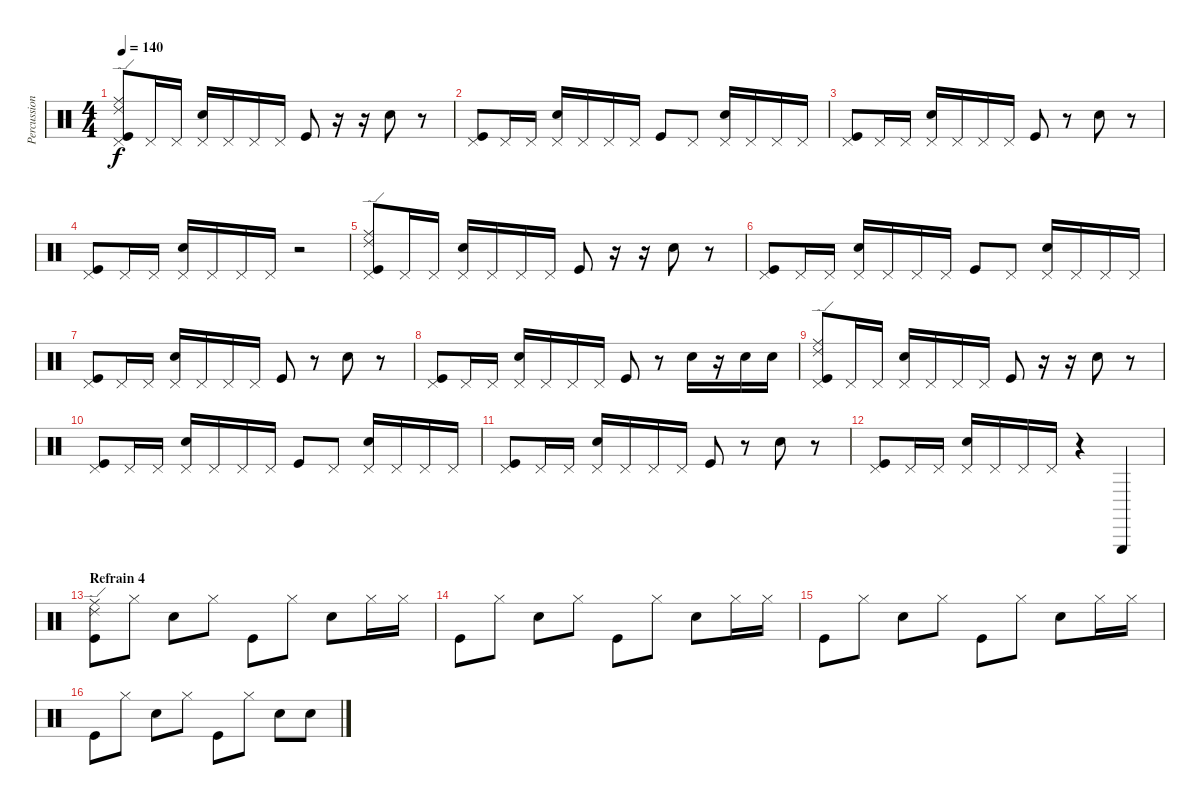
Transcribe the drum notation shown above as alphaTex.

\track ("Percussion" "Percussion") {instrument percussion}
\staff {score}
\articulation defaults
\ts (4 4)
\tempo 140
\clef neutral
\ks c
("Ride (middle)" "Ride (edge) 2" "Pedal Hi-Hat (hit)" "Kick (hit)").8{dy f} "Pedal Hi-Hat (hit)".16 "Pedal Hi-Hat (hit)".16 ("Pedal Hi-Hat (hit)" "Snare (hit) 2").16 "Pedal Hi-Hat (hit)".16 "Pedal Hi-Hat (hit)".16 "Pedal Hi-Hat (hit)".16 "Kick (hit)".8 r.16 r.16 "Snare (hit) 2".8 r.8 |
("Pedal Hi-Hat (hit)" "Kick (hit)").8 "Pedal Hi-Hat (hit)".16 "Pedal Hi-Hat (hit)".16 ("Pedal Hi-Hat (hit)" "Snare (hit) 2").16 "Pedal Hi-Hat (hit)".16 "Pedal Hi-Hat (hit)".16 "Pedal Hi-Hat (hit)".16 "Kick (hit)".8 "Pedal Hi-Hat (hit)".8 ("Pedal Hi-Hat (hit)" "Snare (hit) 2").16 "Pedal Hi-Hat (hit)".16 "Pedal Hi-Hat (hit)".16 "Pedal Hi-Hat (hit)".16 |
("Pedal Hi-Hat (hit)" "Kick (hit)").8 "Pedal Hi-Hat (hit)".16 "Pedal Hi-Hat (hit)".16 ("Pedal Hi-Hat (hit)" "Snare (hit) 2").16 "Pedal Hi-Hat (hit)".16 "Pedal Hi-Hat (hit)".16 "Pedal Hi-Hat (hit)".16 "Kick (hit)".8 r.8 "Snare (hit) 2".8 r.8 |
("Pedal Hi-Hat (hit)" "Kick (hit)").8 "Pedal Hi-Hat (hit)".16 "Pedal Hi-Hat (hit)".16 ("Pedal Hi-Hat (hit)" "Snare (hit) 2").16 "Pedal Hi-Hat (hit)".16 "Pedal Hi-Hat (hit)".16 "Pedal Hi-Hat (hit)".16 r.2 |
("Ride (middle)" "Ride (edge) 2" "Pedal Hi-Hat (hit)" "Kick (hit)").8 "Pedal Hi-Hat (hit)".16 "Pedal Hi-Hat (hit)".16 ("Pedal Hi-Hat (hit)" "Snare (hit) 2").16 "Pedal Hi-Hat (hit)".16 "Pedal Hi-Hat (hit)".16 "Pedal Hi-Hat (hit)".16 "Kick (hit)".8 r.16 r.16 "Snare (hit) 2".8 r.8 |
("Pedal Hi-Hat (hit)" "Kick (hit)").8 "Pedal Hi-Hat (hit)".16 "Pedal Hi-Hat (hit)".16 ("Pedal Hi-Hat (hit)" "Snare (hit) 2").16 "Pedal Hi-Hat (hit)".16 "Pedal Hi-Hat (hit)".16 "Pedal Hi-Hat (hit)".16 "Kick (hit)".8 "Pedal Hi-Hat (hit)".8 ("Pedal Hi-Hat (hit)" "Snare (hit) 2").16 "Pedal Hi-Hat (hit)".16 "Pedal Hi-Hat (hit)".16 "Pedal Hi-Hat (hit)".16 |
("Pedal Hi-Hat (hit)" "Kick (hit)").8 "Pedal Hi-Hat (hit)".16 "Pedal Hi-Hat (hit)".16 ("Pedal Hi-Hat (hit)" "Snare (hit) 2").16 "Pedal Hi-Hat (hit)".16 "Pedal Hi-Hat (hit)".16 "Pedal Hi-Hat (hit)".16 "Kick (hit)".8 r.8 "Snare (hit) 2".8 r.8 |
("Pedal Hi-Hat (hit)" "Kick (hit)").8 "Pedal Hi-Hat (hit)".16 "Pedal Hi-Hat (hit)".16 ("Pedal Hi-Hat (hit)" "Snare (hit) 2").16 "Pedal Hi-Hat (hit)".16 "Pedal Hi-Hat (hit)".16 "Pedal Hi-Hat (hit)".16 "Kick (hit)".8 r.8 "Snare (hit) 2".16 r.16 "Snare (hit) 2".16 "Snare (hit) 2".16 |
("Ride (middle)" "Ride (edge) 2" "Pedal Hi-Hat (hit)" "Kick (hit)").8 "Pedal Hi-Hat (hit)".16 "Pedal Hi-Hat (hit)".16 ("Pedal Hi-Hat (hit)" "Snare (hit) 2").16 "Pedal Hi-Hat (hit)".16 "Pedal Hi-Hat (hit)".16 "Pedal Hi-Hat (hit)".16 "Kick (hit)".8 r.16 r.16 "Snare (hit) 2".8 r.8 |
("Pedal Hi-Hat (hit)" "Kick (hit)").8 "Pedal Hi-Hat (hit)".16 "Pedal Hi-Hat (hit)".16 ("Pedal Hi-Hat (hit)" "Snare (hit) 2").16 "Pedal Hi-Hat (hit)".16 "Pedal Hi-Hat (hit)".16 "Pedal Hi-Hat (hit)".16 "Kick (hit)".8 "Pedal Hi-Hat (hit)".8 ("Pedal Hi-Hat (hit)" "Snare (hit) 2").16 "Pedal Hi-Hat (hit)".16 "Pedal Hi-Hat (hit)".16 "Pedal Hi-Hat (hit)".16 |
("Pedal Hi-Hat (hit)" "Kick (hit)").8 "Pedal Hi-Hat (hit)".16 "Pedal Hi-Hat (hit)".16 ("Pedal Hi-Hat (hit)" "Snare (hit) 2").16 "Pedal Hi-Hat (hit)".16 "Pedal Hi-Hat (hit)".16 "Pedal Hi-Hat (hit)".16 "Kick (hit)".8 r.8 "Snare (hit) 2".8 r.8 |
("Pedal Hi-Hat (hit)" "Kick (hit)").8 "Pedal Hi-Hat (hit)".16 "Pedal Hi-Hat (hit)".16 ("Pedal Hi-Hat (hit)" "Snare (hit) 2").16 "Pedal Hi-Hat (hit)".16 "Pedal Hi-Hat (hit)".16 "Pedal Hi-Hat (hit)".16 r.4 "Triangle (hit)".4 |
\section ("" "Refrain 4")
("Ride (middle)" "Ride (edge) 2" "Kick (hit)").8 "Hi-Hat (closed)".8 "Snare (hit) 2".8 "Hi-Hat (closed)".8 "Kick (hit)".8 "Hi-Hat (closed)".8 "Snare (hit) 2".8 "Hi-Hat (closed)".16 "Hi-Hat (closed)".16 |
"Kick (hit)".8 "Hi-Hat (closed)".8 "Snare (hit) 2".8 "Hi-Hat (closed)".8 "Kick (hit)".8 "Hi-Hat (closed)".8 "Snare (hit) 2".8 "Hi-Hat (closed)".16 "Hi-Hat (closed)".16 |
"Kick (hit)".8 "Hi-Hat (closed)".8 "Snare (hit) 2".8 "Hi-Hat (closed)".8 "Kick (hit)".8 "Hi-Hat (closed)".8 "Snare (hit) 2".8 "Hi-Hat (closed)".16 "Hi-Hat (closed)".16 |
"Kick (hit)".8 "Hi-Hat (closed)".8 "Snare (hit) 2".8 "Hi-Hat (closed)".8 "Kick (hit)".8 "Hi-Hat (closed)".8 "Snare (hit) 2".8 "Snare (hit) 2".8
